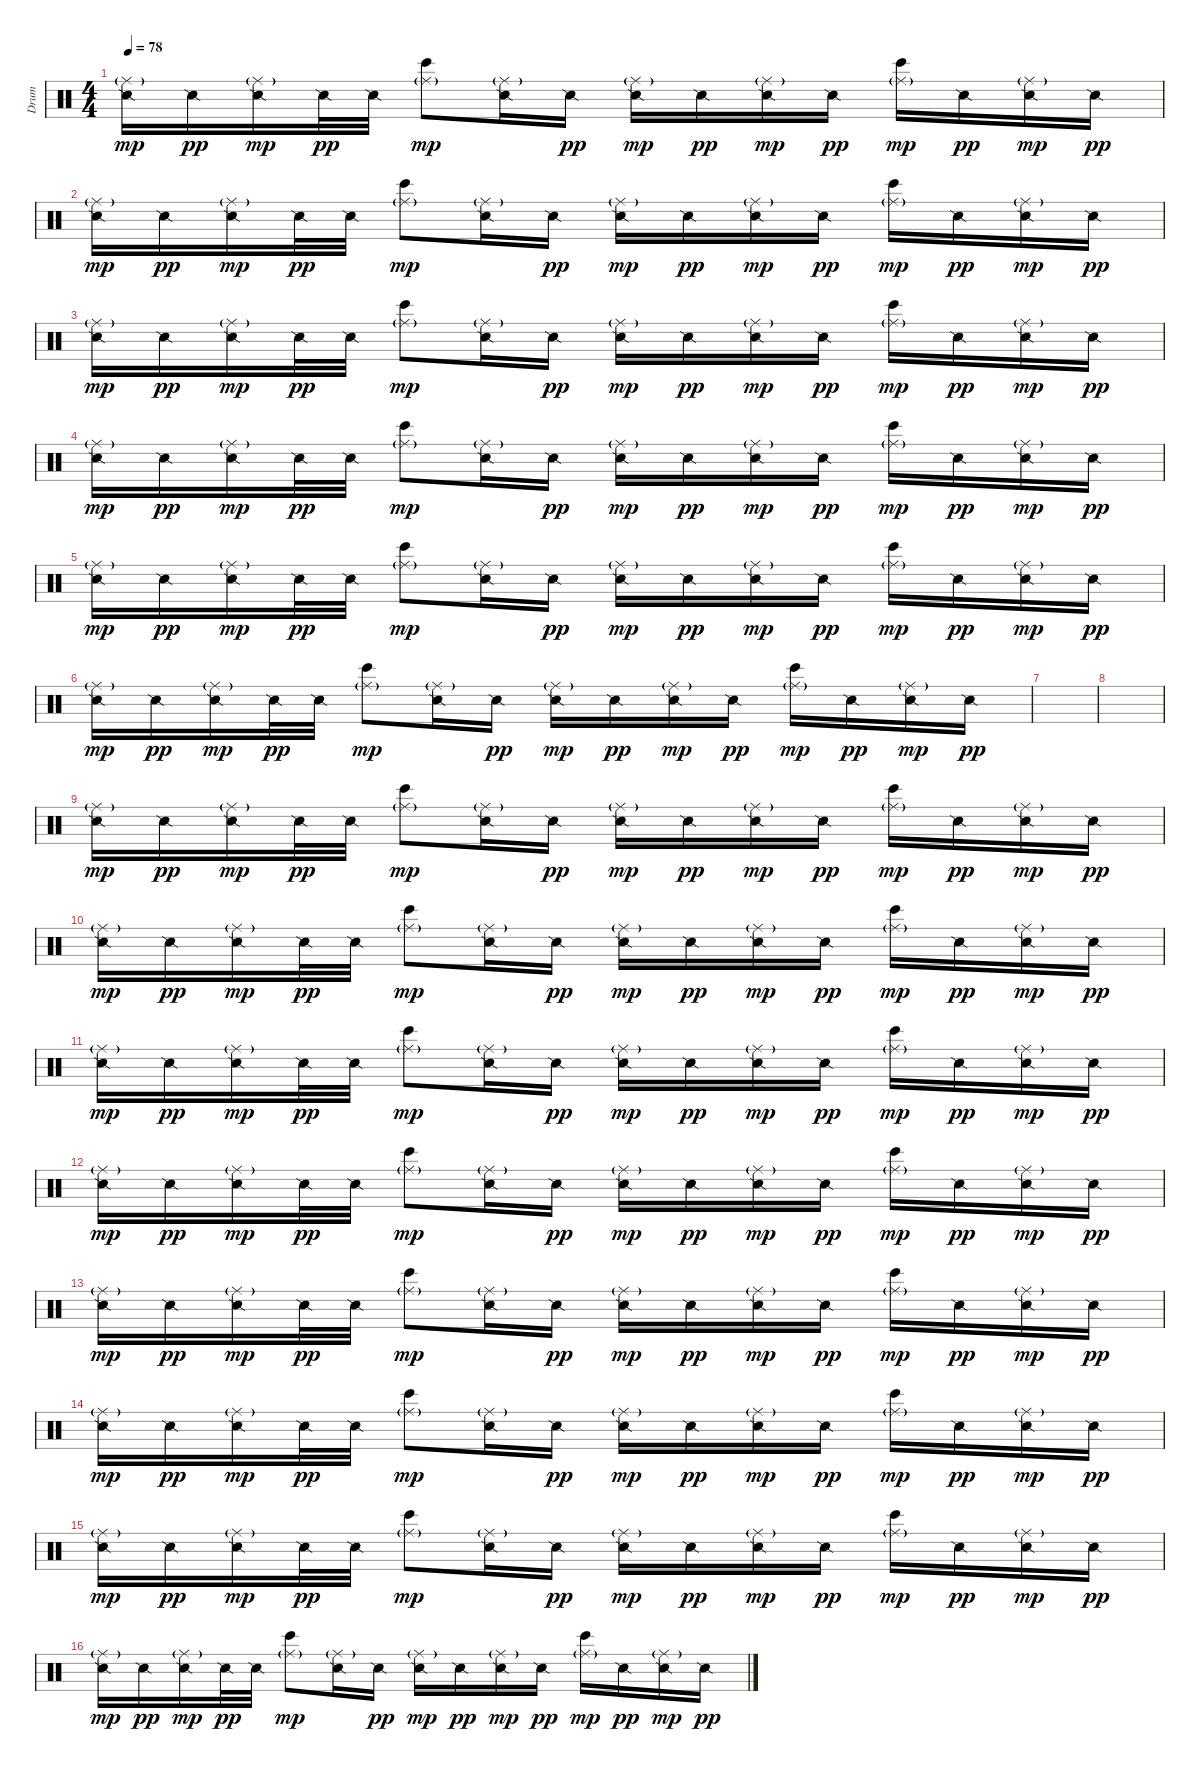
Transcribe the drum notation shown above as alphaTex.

\track ("Drum" "Drum") {instrument percussion}
\staff {score}
\articulation defaults
\ts (4 4)
\tempo 78
\clef neutral
\ks c
("Snare (side stick) 2" "Ride (middle)"{g}).16{dy mp} "Snare (side stick) 2".16{dy pp} ("Snare (side stick) 2" "Ride (middle)"{g}).16{dy mp} "Snare (side stick) 2".32{dy pp} "Snare (side stick) 2".32 ("Bongo High (hit)" "Ride (middle)"{g}).8{dy mp} ("Snare (side stick) 2" "Ride (middle)"{g}).16 "Snare (side stick) 2".16{dy pp} ("Snare (side stick) 2" "Ride (middle)"{g}).16{dy mp} "Snare (side stick) 2".16{dy pp} ("Snare (side stick) 2" "Ride (middle)"{g}).16{dy mp} "Snare (side stick) 2".16{dy pp} ("Bongo High (hit)" "Ride (middle)"{g}).16{dy mp} "Snare (side stick) 2".16{dy pp} ("Snare (side stick) 2" "Ride (middle)"{g}).16{dy mp} "Snare (side stick) 2".16{dy pp} |
("Snare (side stick) 2" "Ride (middle)"{g}).16{dy mp} "Snare (side stick) 2".16{dy pp} ("Snare (side stick) 2" "Ride (middle)"{g}).16{dy mp} "Snare (side stick) 2".32{dy pp} "Snare (side stick) 2".32 ("Bongo High (hit)" "Ride (middle)"{g}).8{dy mp} ("Snare (side stick) 2" "Ride (middle)"{g}).16 "Snare (side stick) 2".16{dy pp} ("Snare (side stick) 2" "Ride (middle)"{g}).16{dy mp} "Snare (side stick) 2".16{dy pp} ("Snare (side stick) 2" "Ride (middle)"{g}).16{dy mp} "Snare (side stick) 2".16{dy pp} ("Bongo High (hit)" "Ride (middle)"{g}).16{dy mp} "Snare (side stick) 2".16{dy pp} ("Snare (side stick) 2" "Ride (middle)"{g}).16{dy mp} "Snare (side stick) 2".16{dy pp} |
("Snare (side stick) 2" "Ride (middle)"{g}).16{dy mp} "Snare (side stick) 2".16{dy pp} ("Snare (side stick) 2" "Ride (middle)"{g}).16{dy mp} "Snare (side stick) 2".32{dy pp} "Snare (side stick) 2".32 ("Bongo High (hit)" "Ride (middle)"{g}).8{dy mp} ("Snare (side stick) 2" "Ride (middle)"{g}).16 "Snare (side stick) 2".16{dy pp} ("Snare (side stick) 2" "Ride (middle)"{g}).16{dy mp} "Snare (side stick) 2".16{dy pp} ("Snare (side stick) 2" "Ride (middle)"{g}).16{dy mp} "Snare (side stick) 2".16{dy pp} ("Bongo High (hit)" "Ride (middle)"{g}).16{dy mp} "Snare (side stick) 2".16{dy pp} ("Snare (side stick) 2" "Ride (middle)"{g}).16{dy mp} "Snare (side stick) 2".16{dy pp} |
("Snare (side stick) 2" "Ride (middle)"{g}).16{dy mp} "Snare (side stick) 2".16{dy pp} ("Snare (side stick) 2" "Ride (middle)"{g}).16{dy mp} "Snare (side stick) 2".32{dy pp} "Snare (side stick) 2".32 ("Bongo High (hit)" "Ride (middle)"{g}).8{dy mp} ("Snare (side stick) 2" "Ride (middle)"{g}).16 "Snare (side stick) 2".16{dy pp} ("Snare (side stick) 2" "Ride (middle)"{g}).16{dy mp} "Snare (side stick) 2".16{dy pp} ("Snare (side stick) 2" "Ride (middle)"{g}).16{dy mp} "Snare (side stick) 2".16{dy pp} ("Bongo High (hit)" "Ride (middle)"{g}).16{dy mp} "Snare (side stick) 2".16{dy pp} ("Snare (side stick) 2" "Ride (middle)"{g}).16{dy mp} "Snare (side stick) 2".16{dy pp} |
("Snare (side stick) 2" "Ride (middle)"{g}).16{dy mp} "Snare (side stick) 2".16{dy pp} ("Snare (side stick) 2" "Ride (middle)"{g}).16{dy mp} "Snare (side stick) 2".32{dy pp} "Snare (side stick) 2".32 ("Bongo High (hit)" "Ride (middle)"{g}).8{dy mp} ("Snare (side stick) 2" "Ride (middle)"{g}).16 "Snare (side stick) 2".16{dy pp} ("Snare (side stick) 2" "Ride (middle)"{g}).16{dy mp} "Snare (side stick) 2".16{dy pp} ("Snare (side stick) 2" "Ride (middle)"{g}).16{dy mp} "Snare (side stick) 2".16{dy pp} ("Bongo High (hit)" "Ride (middle)"{g}).16{dy mp} "Snare (side stick) 2".16{dy pp} ("Snare (side stick) 2" "Ride (middle)"{g}).16{dy mp} "Snare (side stick) 2".16{dy pp} |
("Snare (side stick) 2" "Ride (middle)"{g}).16{dy mp} "Snare (side stick) 2".16{dy pp} ("Snare (side stick) 2" "Ride (middle)"{g}).16{dy mp} "Snare (side stick) 2".32{dy pp} "Snare (side stick) 2".32 ("Bongo High (hit)" "Ride (middle)"{g}).8{dy mp} ("Snare (side stick) 2" "Ride (middle)"{g}).16 "Snare (side stick) 2".16{dy pp} ("Snare (side stick) 2" "Ride (middle)"{g}).16{dy mp} "Snare (side stick) 2".16{dy pp} ("Snare (side stick) 2" "Ride (middle)"{g}).16{dy mp} "Snare (side stick) 2".16{dy pp} ("Bongo High (hit)" "Ride (middle)"{g}).16{dy mp} "Snare (side stick) 2".16{dy pp} ("Snare (side stick) 2" "Ride (middle)"{g}).16{dy mp} "Snare (side stick) 2".16{dy pp} |
|
|
("Snare (side stick) 2" "Ride (middle)"{g}).16{dy mp} "Snare (side stick) 2".16{dy pp} ("Snare (side stick) 2" "Ride (middle)"{g}).16{dy mp} "Snare (side stick) 2".32{dy pp} "Snare (side stick) 2".32 ("Bongo High (hit)" "Ride (middle)"{g}).8{dy mp} ("Snare (side stick) 2" "Ride (middle)"{g}).16 "Snare (side stick) 2".16{dy pp} ("Snare (side stick) 2" "Ride (middle)"{g}).16{dy mp} "Snare (side stick) 2".16{dy pp} ("Snare (side stick) 2" "Ride (middle)"{g}).16{dy mp} "Snare (side stick) 2".16{dy pp} ("Bongo High (hit)" "Ride (middle)"{g}).16{dy mp} "Snare (side stick) 2".16{dy pp} ("Snare (side stick) 2" "Ride (middle)"{g}).16{dy mp} "Snare (side stick) 2".16{dy pp} |
("Snare (side stick) 2" "Ride (middle)"{g}).16{dy mp} "Snare (side stick) 2".16{dy pp} ("Snare (side stick) 2" "Ride (middle)"{g}).16{dy mp} "Snare (side stick) 2".32{dy pp} "Snare (side stick) 2".32 ("Bongo High (hit)" "Ride (middle)"{g}).8{dy mp} ("Snare (side stick) 2" "Ride (middle)"{g}).16 "Snare (side stick) 2".16{dy pp} ("Snare (side stick) 2" "Ride (middle)"{g}).16{dy mp} "Snare (side stick) 2".16{dy pp} ("Snare (side stick) 2" "Ride (middle)"{g}).16{dy mp} "Snare (side stick) 2".16{dy pp} ("Bongo High (hit)" "Ride (middle)"{g}).16{dy mp} "Snare (side stick) 2".16{dy pp} ("Snare (side stick) 2" "Ride (middle)"{g}).16{dy mp} "Snare (side stick) 2".16{dy pp} |
("Snare (side stick) 2" "Ride (middle)"{g}).16{dy mp} "Snare (side stick) 2".16{dy pp} ("Snare (side stick) 2" "Ride (middle)"{g}).16{dy mp} "Snare (side stick) 2".32{dy pp} "Snare (side stick) 2".32 ("Bongo High (hit)" "Ride (middle)"{g}).8{dy mp} ("Snare (side stick) 2" "Ride (middle)"{g}).16 "Snare (side stick) 2".16{dy pp} ("Snare (side stick) 2" "Ride (middle)"{g}).16{dy mp} "Snare (side stick) 2".16{dy pp} ("Snare (side stick) 2" "Ride (middle)"{g}).16{dy mp} "Snare (side stick) 2".16{dy pp} ("Bongo High (hit)" "Ride (middle)"{g}).16{dy mp} "Snare (side stick) 2".16{dy pp} ("Snare (side stick) 2" "Ride (middle)"{g}).16{dy mp} "Snare (side stick) 2".16{dy pp} |
("Snare (side stick) 2" "Ride (middle)"{g}).16{dy mp} "Snare (side stick) 2".16{dy pp} ("Snare (side stick) 2" "Ride (middle)"{g}).16{dy mp} "Snare (side stick) 2".32{dy pp} "Snare (side stick) 2".32 ("Bongo High (hit)" "Ride (middle)"{g}).8{dy mp} ("Snare (side stick) 2" "Ride (middle)"{g}).16 "Snare (side stick) 2".16{dy pp} ("Snare (side stick) 2" "Ride (middle)"{g}).16{dy mp} "Snare (side stick) 2".16{dy pp} ("Snare (side stick) 2" "Ride (middle)"{g}).16{dy mp} "Snare (side stick) 2".16{dy pp} ("Bongo High (hit)" "Ride (middle)"{g}).16{dy mp} "Snare (side stick) 2".16{dy pp} ("Snare (side stick) 2" "Ride (middle)"{g}).16{dy mp} "Snare (side stick) 2".16{dy pp} |
("Snare (side stick) 2" "Ride (middle)"{g}).16{dy mp} "Snare (side stick) 2".16{dy pp} ("Snare (side stick) 2" "Ride (middle)"{g}).16{dy mp} "Snare (side stick) 2".32{dy pp} "Snare (side stick) 2".32 ("Bongo High (hit)" "Ride (middle)"{g}).8{dy mp} ("Snare (side stick) 2" "Ride (middle)"{g}).16 "Snare (side stick) 2".16{dy pp} ("Snare (side stick) 2" "Ride (middle)"{g}).16{dy mp} "Snare (side stick) 2".16{dy pp} ("Snare (side stick) 2" "Ride (middle)"{g}).16{dy mp} "Snare (side stick) 2".16{dy pp} ("Bongo High (hit)" "Ride (middle)"{g}).16{dy mp} "Snare (side stick) 2".16{dy pp} ("Snare (side stick) 2" "Ride (middle)"{g}).16{dy mp} "Snare (side stick) 2".16{dy pp} |
("Snare (side stick) 2" "Ride (middle)"{g}).16{dy mp} "Snare (side stick) 2".16{dy pp} ("Snare (side stick) 2" "Ride (middle)"{g}).16{dy mp} "Snare (side stick) 2".32{dy pp} "Snare (side stick) 2".32 ("Bongo High (hit)" "Ride (middle)"{g}).8{dy mp} ("Snare (side stick) 2" "Ride (middle)"{g}).16 "Snare (side stick) 2".16{dy pp} ("Snare (side stick) 2" "Ride (middle)"{g}).16{dy mp} "Snare (side stick) 2".16{dy pp} ("Snare (side stick) 2" "Ride (middle)"{g}).16{dy mp} "Snare (side stick) 2".16{dy pp} ("Bongo High (hit)" "Ride (middle)"{g}).16{dy mp} "Snare (side stick) 2".16{dy pp} ("Snare (side stick) 2" "Ride (middle)"{g}).16{dy mp} "Snare (side stick) 2".16{dy pp} |
("Snare (side stick) 2" "Ride (middle)"{g}).16{dy mp} "Snare (side stick) 2".16{dy pp} ("Snare (side stick) 2" "Ride (middle)"{g}).16{dy mp} "Snare (side stick) 2".32{dy pp} "Snare (side stick) 2".32 ("Bongo High (hit)" "Ride (middle)"{g}).8{dy mp} ("Snare (side stick) 2" "Ride (middle)"{g}).16 "Snare (side stick) 2".16{dy pp} ("Snare (side stick) 2" "Ride (middle)"{g}).16{dy mp} "Snare (side stick) 2".16{dy pp} ("Snare (side stick) 2" "Ride (middle)"{g}).16{dy mp} "Snare (side stick) 2".16{dy pp} ("Bongo High (hit)" "Ride (middle)"{g}).16{dy mp} "Snare (side stick) 2".16{dy pp} ("Snare (side stick) 2" "Ride (middle)"{g}).16{dy mp} "Snare (side stick) 2".16{dy pp} |
("Snare (side stick) 2" "Ride (middle)"{g}).16{dy mp} "Snare (side stick) 2".16{dy pp} ("Snare (side stick) 2" "Ride (middle)"{g}).16{dy mp} "Snare (side stick) 2".32{dy pp} "Snare (side stick) 2".32 ("Bongo High (hit)" "Ride (middle)"{g}).8{dy mp} ("Snare (side stick) 2" "Ride (middle)"{g}).16 "Snare (side stick) 2".16{dy pp} ("Snare (side stick) 2" "Ride (middle)"{g}).16{dy mp} "Snare (side stick) 2".16{dy pp} ("Snare (side stick) 2" "Ride (middle)"{g}).16{dy mp} "Snare (side stick) 2".16{dy pp} ("Bongo High (hit)" "Ride (middle)"{g}).16{dy mp} "Snare (side stick) 2".16{dy pp} ("Snare (side stick) 2" "Ride (middle)"{g}).16{dy mp} "Snare (side stick) 2".16{dy pp}
